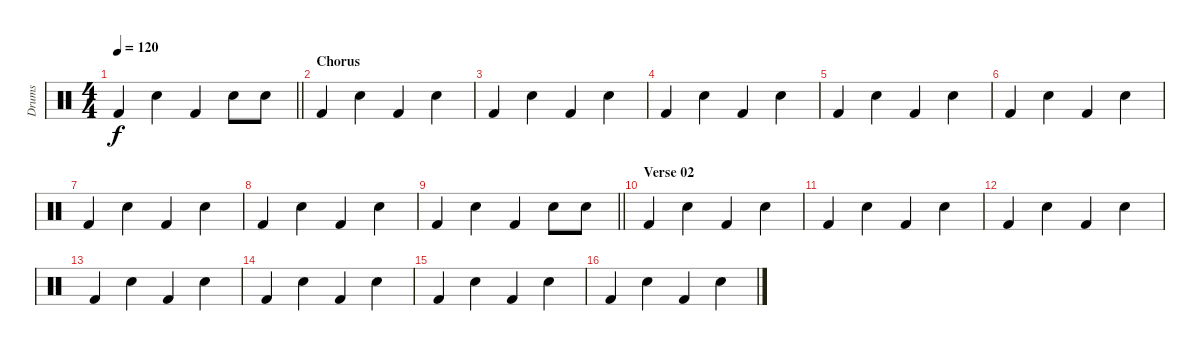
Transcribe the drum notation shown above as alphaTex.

\track ("Drums" "Drums") {instrument percussion}
\staff {score}
\articulation defaults
\ts (4 4)
\tempo 120
\clef neutral
\barLineRight lightlight
\ks c "Kick (hit) 2".4{dy f} "Electric Snare (hit)".4 "Kick (hit) 2".4 "Electric Snare (hit)".8 "Electric Snare (hit)".8
|
\section ("" "Chorus")
"Kick (hit) 2".4 "Electric Snare (hit)".4 "Kick (hit) 2".4 "Electric Snare (hit)".4 |
"Kick (hit) 2".4 "Electric Snare (hit)".4 "Kick (hit) 2".4 "Electric Snare (hit)".4 |
"Kick (hit) 2".4 "Electric Snare (hit)".4 "Kick (hit) 2".4 "Electric Snare (hit)".4 |
"Kick (hit) 2".4 "Electric Snare (hit)".4 "Kick (hit) 2".4 "Electric Snare (hit)".4 |
"Kick (hit) 2".4 "Electric Snare (hit)".4 "Kick (hit) 2".4 "Electric Snare (hit)".4 |
"Kick (hit) 2".4 "Electric Snare (hit)".4 "Kick (hit) 2".4 "Electric Snare (hit)".4 |
"Kick (hit) 2".4 "Electric Snare (hit)".4 "Kick (hit) 2".4 "Electric Snare (hit)".4 |
\barLineRight lightlight "Kick (hit) 2".4 "Electric Snare (hit)".4 "Kick (hit) 2".4 "Electric Snare (hit)".8 "Electric Snare (hit)".8
|
\section ("" "Verse 02")
"Kick (hit) 2".4 "Electric Snare (hit)".4 "Kick (hit) 2".4 "Electric Snare (hit)".4 |
"Kick (hit) 2".4 "Electric Snare (hit)".4 "Kick (hit) 2".4 "Electric Snare (hit)".4 |
"Kick (hit) 2".4 "Electric Snare (hit)".4 "Kick (hit) 2".4 "Electric Snare (hit)".4 |
"Kick (hit) 2".4 "Electric Snare (hit)".4 "Kick (hit) 2".4 "Electric Snare (hit)".4 |
"Kick (hit) 2".4 "Electric Snare (hit)".4 "Kick (hit) 2".4 "Electric Snare (hit)".4 |
"Kick (hit) 2".4 "Electric Snare (hit)".4 "Kick (hit) 2".4 "Electric Snare (hit)".4 |
"Kick (hit) 2".4 "Electric Snare (hit)".4 "Kick (hit) 2".4 "Electric Snare (hit)".4
